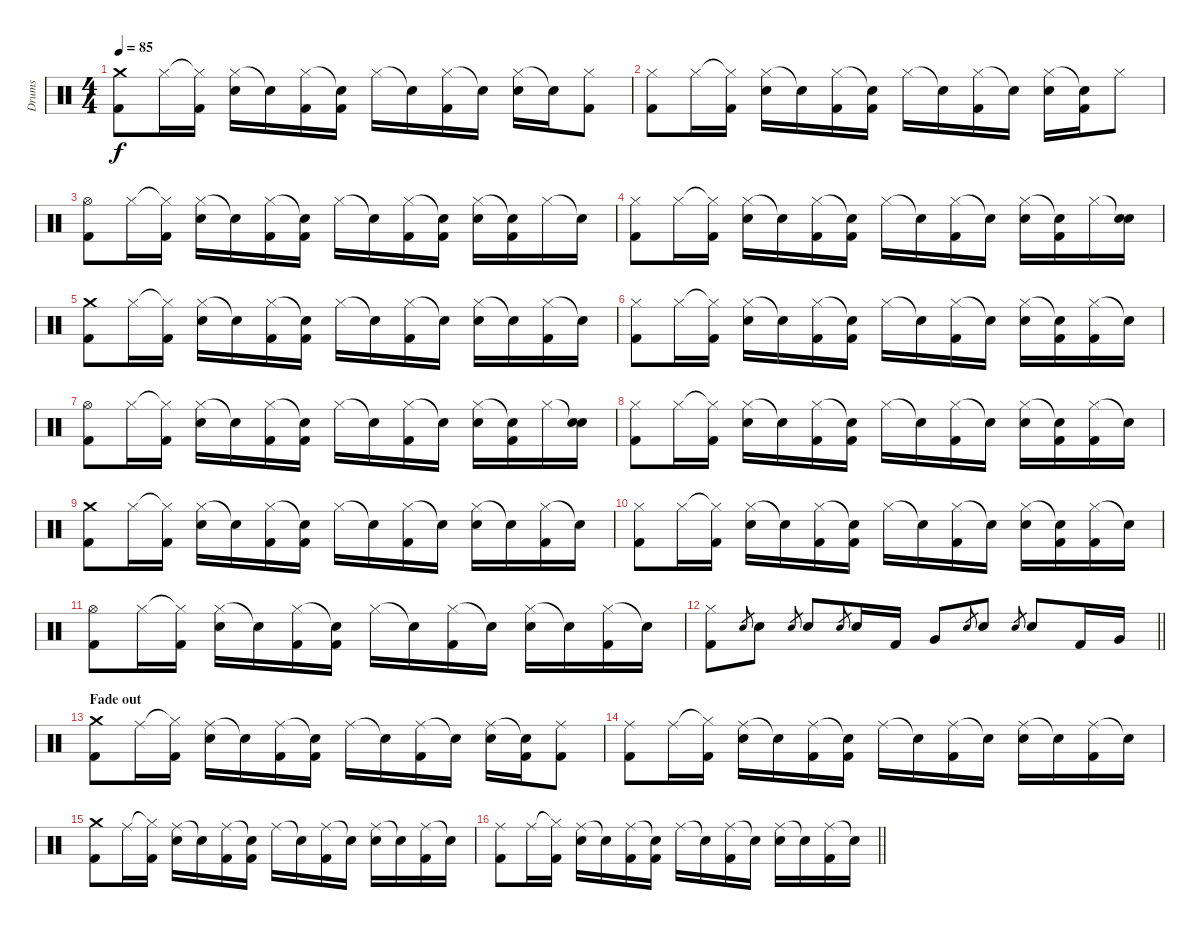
\track ("Drums" "Drums") {instrument percussion}
\staff {score}
\articulation defaults
\ts (4 4)
\tempo 85
\clef neutral
\ks c
("Crash medium (hit)" "Kick (hit) 2").8{dy f} "Hi-Hat (closed)".16 ("Hi-Hat (closed)"{t} "Kick (hit) 2").16 ("Hi-Hat (closed)" "Electric Snare (hit)").16 "Snare (hit)"{t}.16 ("Hi-Hat (closed)" "Kick (hit) 2").16 ("Snare (hit)"{t} "Kick (hit) 2").16 "Hi-Hat (closed)".16 "Snare (hit)"{t}.16 ("Hi-Hat (closed)" "Kick (hit) 2").16 "Snare (hit)"{t}.16 ("Hi-Hat (closed)" "Electric Snare (hit)").16 "Snare (hit)"{t}.16 ("Hi-Hat (closed)" "Kick (hit) 2").8 |
("Hi-Hat (closed)" "Kick (hit) 2").8 "Hi-Hat (closed)".16 ("Hi-Hat (closed)"{t} "Kick (hit) 2").16 ("Hi-Hat (closed)" "Electric Snare (hit)").16 "Snare (hit)"{t}.16 ("Hi-Hat (closed)" "Kick (hit) 2").16 ("Snare (hit)"{t} "Kick (hit) 2").16 "Hi-Hat (closed)".16 "Snare (hit)"{t}.16 ("Hi-Hat (closed)" "Kick (hit) 2").16 "Snare (hit)"{t}.16 ("Hi-Hat (closed)" "Electric Snare (hit)").16 ("Snare (hit)"{t} "Kick (hit) 2").16 "Hi-Hat (closed)".8 |
("Hi-Hat (open)" "Kick (hit) 2").8 "Hi-Hat (closed)".16 ("Hi-Hat (closed)"{t} "Kick (hit) 2").16 ("Hi-Hat (closed)" "Electric Snare (hit)").16 "Snare (hit)"{t}.16 ("Hi-Hat (closed)" "Kick (hit) 2").16 ("Snare (hit)"{t} "Kick (hit) 2").16 "Hi-Hat (closed)".16 "Snare (hit)"{t}.16 ("Hi-Hat (closed)" "Kick (hit) 2").16 ("Snare (hit)"{t} "Kick (hit) 2").16 ("Hi-Hat (closed)" "Electric Snare (hit)").16 ("Snare (hit)"{t} "Kick (hit) 2").16 "Hi-Hat (closed)".16 "Snare (hit)"{t}.16 |
("Hi-Hat (closed)" "Kick (hit) 2").8 "Hi-Hat (closed)".16 ("Hi-Hat (closed)"{t} "Kick (hit) 2").16 ("Hi-Hat (closed)" "Electric Snare (hit)").16 "Snare (hit)"{t}.16 ("Hi-Hat (closed)" "Kick (hit) 2").16 ("Snare (hit)"{t} "Kick (hit) 2").16 "Hi-Hat (closed)".16 "Snare (hit)"{t}.16 ("Hi-Hat (closed)" "Kick (hit) 2").16 "Snare (hit)"{t}.16 ("Hi-Hat (closed)" "Electric Snare (hit)").16 ("Snare (hit)"{t} "Kick (hit) 2").16 "Hi-Hat (closed)".16 ("Snare (hit)"{t} "Electric Snare (hit)").16 |
("Crash medium (hit)" "Kick (hit) 2").8 "Hi-Hat (closed)".16 ("Hi-Hat (closed)"{t} "Kick (hit) 2").16 ("Hi-Hat (closed)" "Electric Snare (hit)").16 "Snare (hit)"{t}.16 ("Hi-Hat (closed)" "Kick (hit) 2").16 ("Snare (hit)"{t} "Kick (hit) 2").16 "Hi-Hat (closed)".16 "Snare (hit)"{t}.16 ("Hi-Hat (closed)" "Kick (hit) 2").16 "Snare (hit)"{t}.16 ("Hi-Hat (closed)" "Electric Snare (hit)").16 "Snare (hit)"{t}.16 ("Hi-Hat (closed)" "Kick (hit) 2").16 "Snare (hit)"{t}.16 |
("Hi-Hat (closed)" "Kick (hit) 2").8 "Hi-Hat (closed)".16 ("Hi-Hat (closed)"{t} "Kick (hit) 2").16 ("Hi-Hat (closed)" "Electric Snare (hit)").16 "Snare (hit)"{t}.16 ("Hi-Hat (closed)" "Kick (hit) 2").16 ("Snare (hit)"{t} "Kick (hit) 2").16 "Hi-Hat (closed)".16 "Snare (hit)"{t}.16 ("Hi-Hat (closed)" "Kick (hit) 2").16 "Snare (hit)"{t}.16 ("Hi-Hat (closed)" "Electric Snare (hit)").16 ("Snare (hit)"{t} "Kick (hit) 2").16 ("Hi-Hat (closed)" "Kick (hit) 2").16 "Snare (hit)"{t}.16 |
("Hi-Hat (open)" "Kick (hit) 2").8 "Hi-Hat (closed)".16 ("Hi-Hat (closed)"{t} "Kick (hit) 2").16 ("Hi-Hat (closed)" "Electric Snare (hit)").16 "Snare (hit)"{t}.16 ("Hi-Hat (closed)" "Kick (hit) 2").16 ("Snare (hit)"{t} "Kick (hit) 2").16 "Hi-Hat (closed)".16 "Snare (hit)"{t}.16 ("Hi-Hat (closed)" "Kick (hit) 2").16 "Snare (hit)"{t}.16 ("Hi-Hat (closed)" "Electric Snare (hit)").16 ("Snare (hit)"{t} "Kick (hit) 2").16 "Hi-Hat (closed)".16 ("Snare (hit)"{t} "Electric Snare (hit)").16 |
("Hi-Hat (closed)" "Kick (hit) 2").8 "Hi-Hat (closed)".16 ("Hi-Hat (closed)"{t} "Kick (hit) 2").16 ("Hi-Hat (closed)" "Electric Snare (hit)").16 "Snare (hit)"{t}.16 ("Hi-Hat (closed)" "Kick (hit) 2").16 ("Snare (hit)"{t} "Kick (hit) 2").16 "Hi-Hat (closed)".16 "Snare (hit)"{t}.16 ("Hi-Hat (closed)" "Kick (hit) 2").16 "Snare (hit)"{t}.16 ("Hi-Hat (closed)" "Electric Snare (hit)").16 ("Snare (hit)"{t} "Kick (hit) 2").16 ("Hi-Hat (closed)" "Kick (hit) 2").16 "Snare (hit)"{t}.16 |
("Crash medium (hit)" "Kick (hit) 2").8 "Hi-Hat (closed)".16 ("Hi-Hat (closed)"{t} "Kick (hit) 2").16 ("Hi-Hat (closed)" "Electric Snare (hit)").16 "Snare (hit)"{t}.16 ("Hi-Hat (closed)" "Kick (hit) 2").16 ("Snare (hit)"{t} "Kick (hit) 2").16 "Hi-Hat (closed)".16 "Snare (hit)"{t}.16 ("Hi-Hat (closed)" "Kick (hit) 2").16 "Snare (hit)"{t}.16 ("Hi-Hat (closed)" "Electric Snare (hit)").16 "Snare (hit)"{t}.16 ("Hi-Hat (closed)" "Kick (hit) 2").16 "Snare (hit)"{t}.16 |
("Hi-Hat (closed)" "Kick (hit) 2").8 "Hi-Hat (closed)".16 ("Hi-Hat (closed)"{t} "Kick (hit) 2").16 ("Hi-Hat (closed)" "Electric Snare (hit)").16 "Snare (hit)"{t}.16 ("Hi-Hat (closed)" "Kick (hit) 2").16 ("Snare (hit)"{t} "Kick (hit) 2").16 "Hi-Hat (closed)".16 "Snare (hit)"{t}.16 ("Hi-Hat (closed)" "Kick (hit) 2").16 "Snare (hit)"{t}.16 ("Hi-Hat (closed)" "Electric Snare (hit)").16 ("Snare (hit)"{t} "Kick (hit) 2").16 ("Hi-Hat (closed)" "Kick (hit) 2").16 "Snare (hit)"{t}.16 |
("Hi-Hat (open)" "Kick (hit) 2").8 "Hi-Hat (closed)".16 ("Hi-Hat (closed)"{t} "Kick (hit) 2").16 ("Hi-Hat (closed)" "Electric Snare (hit)").16 "Snare (hit)"{t}.16 ("Hi-Hat (closed)" "Kick (hit) 2").16 ("Snare (hit)"{t} "Kick (hit) 2").16 "Hi-Hat (closed)".16 "Snare (hit)"{t}.16 ("Hi-Hat (closed)" "Kick (hit) 2").16 "Snare (hit)"{t}.16 ("Hi-Hat (closed)" "Electric Snare (hit)").16 "Snare (hit)"{t}.16 ("Hi-Hat (closed)" "Kick (hit) 2").16 "Snare (hit)"{t}.16 |
\barLineRight lightlight
("Hi-Hat (closed)" "Kick (hit) 2").8 "Electric Snare (hit)".8{gr} "Electric Snare (hit)".8 "Electric Snare (hit)".8{gr} "Electric Snare (hit)".8 "Electric Snare (hit)".8{gr} "Electric Snare (hit)".16 "Kick (hit) 2".16 "Very Low Tom (hit)".8 "Electric Snare (hit)".8{gr} "Electric Snare (hit)".8 "Electric Snare (hit)".8{gr} "Electric Snare (hit)".8 "Kick (hit) 2".16 "Very Low Tom (hit)".16 |
\section ("" "Fade out")
("Crash medium (hit)" "Kick (hit) 2").8{volume 4} "Ride (middle)".16 ("Hi-Hat (closed)"{t} "Kick (hit) 2").16 ("Ride (middle)" "Electric Snare (hit)").16 "Snare (hit)"{t}.16 ("Ride (middle)" "Kick (hit) 2").16 ("Snare (hit)"{t} "Kick (hit) 2").16 "Ride (middle)".16 "Snare (hit)"{t}.16 ("Ride (middle)" "Kick (hit) 2").16 "Snare (hit)"{t}.16 ("Ride (middle)" "Electric Snare (hit)").16 ("Snare (hit)"{t} "Kick (hit) 2").16 ("Ride (middle)" "Kick (hit) 2").8 |
("Ride (middle)" "Kick (hit) 2").8 "Ride (middle)".16 ("Hi-Hat (closed)"{t} "Kick (hit) 2").16 ("Ride (middle)" "Electric Snare (hit)").16 "Snare (hit)"{t}.16 ("Ride (middle)" "Kick (hit) 2").16 ("Snare (hit)"{t} "Kick (hit) 2").16 "Ride (middle)".16 "Snare (hit)"{t}.16 ("Ride (middle)" "Kick (hit) 2").16 "Snare (hit)"{t}.16 ("Ride (middle)" "Electric Snare (hit)").16 "Snare (hit)"{t}.16 ("Ride (middle)" "Kick (hit) 2").16 "Snare (hit)"{t}.16 |
("Crash medium (hit)" "Kick (hit) 2").8{volume 0} "Ride (middle)".16 ("Hi-Hat (closed)"{t} "Kick (hit) 2").16 ("Ride (middle)" "Electric Snare (hit)").16 "Snare (hit)"{t}.16 ("Ride (middle)" "Kick (hit) 2").16 ("Snare (hit)"{t} "Kick (hit) 2").16 "Ride (middle)".16 "Snare (hit)"{t}.16 ("Ride (middle)" "Kick (hit) 2").16 "Snare (hit)"{t}.16 ("Ride (middle)" "Electric Snare (hit)").16 "Snare (hit)"{t}.16 ("Ride (middle)" "Kick (hit) 2").16 "Snare (hit)"{t}.16 |
\barLineRight lightlight
("Ride (middle)" "Kick (hit) 2").8 "Ride (middle)".16 ("Hi-Hat (closed)"{t} "Kick (hit) 2").16 ("Ride (middle)" "Electric Snare (hit)").16 "Snare (hit)"{t}.16 ("Ride (middle)" "Kick (hit) 2").16 ("Snare (hit)"{t} "Kick (hit) 2").16 "Ride (middle)".16 "Snare (hit)"{t}.16 ("Ride (middle)" "Kick (hit) 2").16 "Snare (hit)"{t}.16 ("Ride (middle)" "Electric Snare (hit)").16 "Snare (hit)"{t}.16 ("Ride (middle)" "Kick (hit) 2").16 "Snare (hit)"{t}.16
